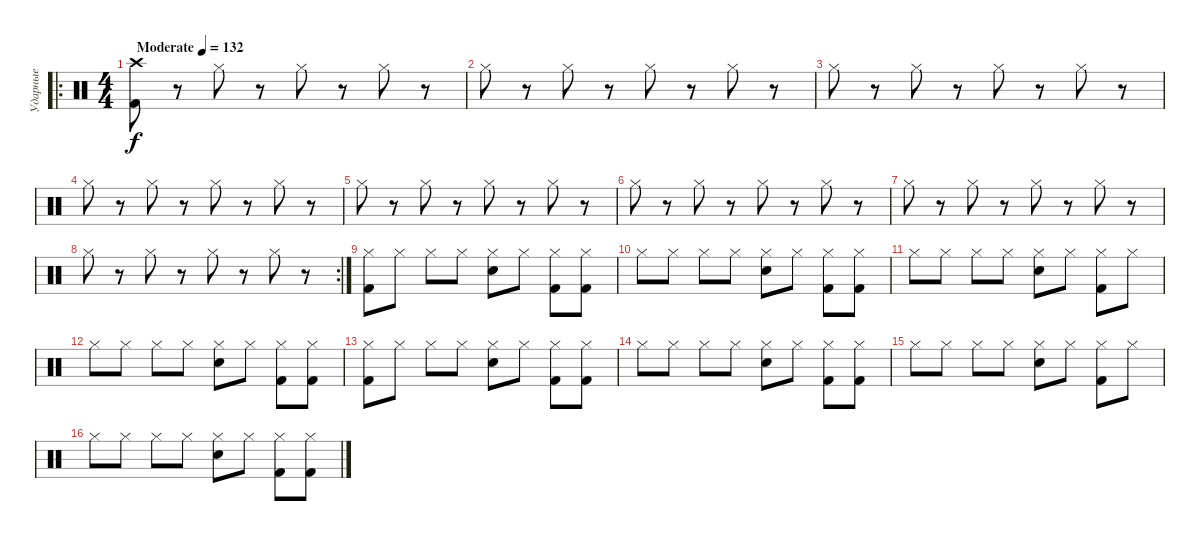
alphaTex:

\track ("Ударные" "Ударные") {instrument percussion}
\staff {score}
\articulation defaults
\ro
\ts (4 4)
\tempo (132 "Moderate")
\clef neutral
\ks c
("Kick (hit) 2" "Crash high (hit)").8{dy f} r.8 "Hi-Hat (closed)".8 r.8 "Hi-Hat (closed)".8 r.8 "Hi-Hat (closed)".8 r.8 |
"Hi-Hat (closed)".8 r.8 "Hi-Hat (closed)".8 r.8 "Hi-Hat (closed)".8 r.8 "Hi-Hat (closed)".8 r.8 |
"Hi-Hat (closed)".8 r.8 "Hi-Hat (closed)".8 r.8 "Hi-Hat (closed)".8 r.8 "Hi-Hat (closed)".8 r.8 |
"Hi-Hat (closed)".8 r.8 "Hi-Hat (closed)".8 r.8 "Hi-Hat (closed)".8 r.8 "Hi-Hat (closed)".8 r.8 |
"Hi-Hat (closed)".8 r.8 "Hi-Hat (closed)".8 r.8 "Hi-Hat (closed)".8 r.8 "Hi-Hat (closed)".8 r.8 |
"Hi-Hat (closed)".8 r.8 "Hi-Hat (closed)".8 r.8 "Hi-Hat (closed)".8 r.8 "Hi-Hat (closed)".8 r.8 |
"Hi-Hat (closed)".8 r.8 "Hi-Hat (closed)".8 r.8 "Hi-Hat (closed)".8 r.8 "Hi-Hat (closed)".8 r.8 |
\rc 2 "Hi-Hat (closed)".8
r.8 "Hi-Hat (closed)".8 r.8 "Hi-Hat (closed)".8 r.8 "Hi-Hat (closed)".8 r.8 |
("Kick (hit) 2" "Hi-Hat (closed)").8 "Hi-Hat (closed)".8 "Hi-Hat (closed)".8 "Hi-Hat (closed)".8 ("Electric Snare (hit)" "Hi-Hat (closed)").8 "Hi-Hat (closed)".8 ("Kick (hit) 2" "Hi-Hat (closed)").8 ("Kick (hit) 2" "Hi-Hat (closed)").8 |
"Hi-Hat (closed)".8 "Hi-Hat (closed)".8 "Hi-Hat (closed)".8 "Hi-Hat (closed)".8 ("Electric Snare (hit)" "Hi-Hat (closed)").8 "Hi-Hat (closed)".8 ("Kick (hit) 2" "Hi-Hat (closed)").8 ("Kick (hit) 2" "Hi-Hat (closed)").8 |
"Hi-Hat (closed)".8 "Hi-Hat (closed)".8 "Hi-Hat (closed)".8 "Hi-Hat (closed)".8 ("Electric Snare (hit)" "Hi-Hat (closed)").8 "Hi-Hat (closed)".8 ("Kick (hit) 2" "Hi-Hat (closed)").8 "Hi-Hat (closed)".8 |
"Hi-Hat (closed)".8 "Hi-Hat (closed)".8 "Hi-Hat (closed)".8 "Hi-Hat (closed)".8 ("Electric Snare (hit)" "Hi-Hat (closed)").8 "Hi-Hat (closed)".8 ("Kick (hit) 2" "Hi-Hat (closed)").8 ("Kick (hit) 2" "Hi-Hat (closed)").8 |
("Kick (hit) 2" "Hi-Hat (closed)").8 "Hi-Hat (closed)".8 "Hi-Hat (closed)".8 "Hi-Hat (closed)".8 ("Electric Snare (hit)" "Hi-Hat (closed)").8 "Hi-Hat (closed)".8 ("Kick (hit) 2" "Hi-Hat (closed)").8 ("Kick (hit) 2" "Hi-Hat (closed)").8 |
"Hi-Hat (closed)".8 "Hi-Hat (closed)".8 "Hi-Hat (closed)".8 "Hi-Hat (closed)".8 ("Electric Snare (hit)" "Hi-Hat (closed)").8 "Hi-Hat (closed)".8 ("Kick (hit) 2" "Hi-Hat (closed)").8 ("Kick (hit) 2" "Hi-Hat (closed)").8 |
"Hi-Hat (closed)".8 "Hi-Hat (closed)".8 "Hi-Hat (closed)".8 "Hi-Hat (closed)".8 ("Electric Snare (hit)" "Hi-Hat (closed)").8 "Hi-Hat (closed)".8 ("Kick (hit) 2" "Hi-Hat (closed)").8 "Hi-Hat (closed)".8 |
"Hi-Hat (closed)".8 "Hi-Hat (closed)".8 "Hi-Hat (closed)".8 "Hi-Hat (closed)".8 ("Electric Snare (hit)" "Hi-Hat (closed)").8 "Hi-Hat (closed)".8 ("Kick (hit) 2" "Hi-Hat (closed)").8 ("Kick (hit) 2" "Hi-Hat (closed)").8
